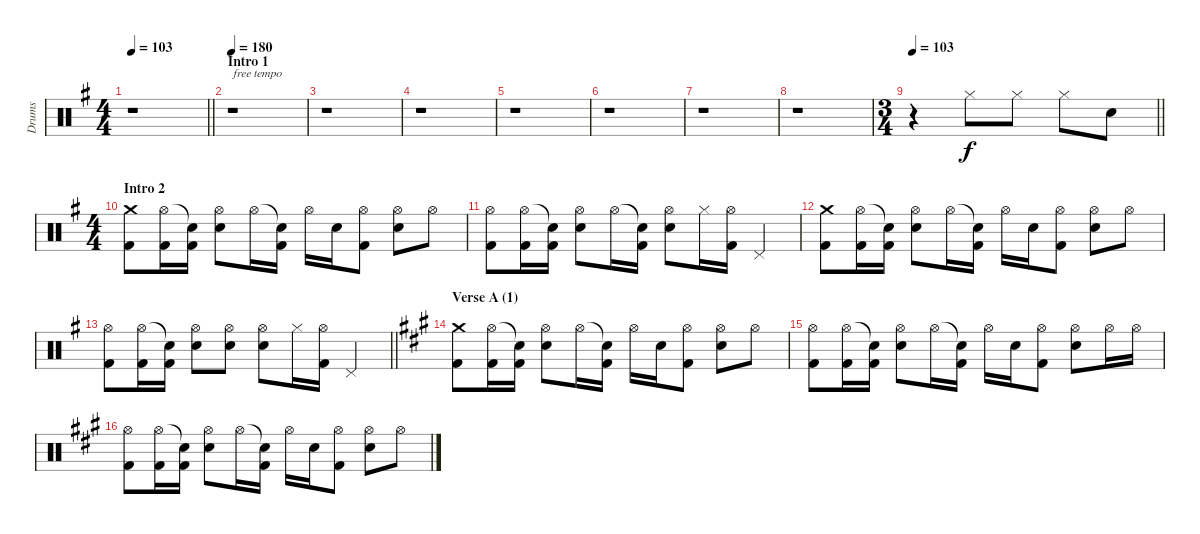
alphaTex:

\track ("Drums" "Drums") {instrument percussion}
\staff {score}
\articulation defaults
\ts (4 4)
\tempo 103
\clef neutral
\barLineRight lightlight
\ks eminor
r.1{dy f} |
\section ("" "Intro 1")
\tempo 180
r.1{txt "free tempo"} |
r.1 |
r.1 |
r.1 |
r.1 |
r.1 |
r.1 |
\ts (3 4)
\tempo 103
\barLineRight lightlight
r.4 "Hi-Hat (closed)".8 "Hi-Hat (closed)".8 "Hi-Hat (closed)".8 "Electric Snare (hit)".8 |
\ts (4 4)
\section ("" "Intro 2")
("Crash medium (hit)" "Kick (hit) 2").8 ("Hi-Hat (open)" "Kick (hit) 2").16 ("Snare (hit)"{t} "Kick (hit) 2").16 ("Hi-Hat (open)" "Electric Snare (hit)").8 "Hi-Hat (open)".16 ("Snare (hit)"{t} "Kick (hit) 2").16 "Hi-Hat (open)".16 "Electric Snare (hit)".16 ("Hi-Hat (open)" "Kick (hit) 2").8 ("Hi-Hat (open)" "Electric Snare (hit)").8 "Hi-Hat (open)".8 |
("Hi-Hat (open)" "Kick (hit) 2").8 ("Hi-Hat (open)" "Kick (hit) 2").16 ("Snare (hit)"{t} "Kick (hit) 2").16 ("Hi-Hat (open)" "Electric Snare (hit)").8 "Hi-Hat (open)".16 ("Snare (hit)"{t} "Kick (hit) 2").16 ("Hi-Hat (open)" "Electric Snare (hit)").8 "Hi-Hat (closed)".16 ("Hi-Hat (open)" "Kick (hit) 2").16 "Pedal Hi-Hat (hit)".4 |
("Crash medium (hit)" "Kick (hit) 2").8 ("Hi-Hat (open)" "Kick (hit) 2").16 ("Snare (hit)"{t} "Kick (hit) 2").16 ("Hi-Hat (open)" "Electric Snare (hit)").8 "Hi-Hat (open)".16 ("Snare (hit)"{t} "Kick (hit) 2").16 "Hi-Hat (open)".16 "Electric Snare (hit)".16 ("Hi-Hat (open)" "Kick (hit) 2").8 ("Hi-Hat (open)" "Electric Snare (hit)").8 "Hi-Hat (open)".8 |
\barLineRight lightlight
("Hi-Hat (open)" "Kick (hit) 2").8 ("Hi-Hat (open)" "Kick (hit) 2").16 ("Snare (hit)"{t} "Kick (hit) 2").16 ("Hi-Hat (open)" "Electric Snare (hit)").8 ("Hi-Hat (open)" "Electric Snare (hit)").8 ("Hi-Hat (open)" "Electric Snare (hit)").8 "Hi-Hat (closed)".16 ("Hi-Hat (open)" "Kick (hit) 2").16 "Pedal Hi-Hat (hit)".4 |
\section ("" "Verse A (1)")
\ks f#minor
("Crash medium (hit)" "Kick (hit) 2").8 ("Hi-Hat (open)" "Kick (hit) 2").16 ("Snare (hit)"{t} "Kick (hit) 2").16 ("Hi-Hat (open)" "Electric Snare (hit)").8 "Hi-Hat (open)".16 ("Snare (hit)"{t} "Kick (hit) 2").16 "Hi-Hat (open)".16 "Electric Snare (hit)".16 ("Hi-Hat (open)" "Kick (hit) 2").8 ("Hi-Hat (open)" "Electric Snare (hit)").8 "Hi-Hat (open)".8 |
("Hi-Hat (open)" "Kick (hit) 2").8 ("Hi-Hat (open)" "Kick (hit) 2").16 ("Snare (hit)"{t} "Kick (hit) 2").16 ("Hi-Hat (open)" "Electric Snare (hit)").8 "Hi-Hat (open)".16 ("Snare (hit)"{t} "Kick (hit) 2").16 "Hi-Hat (open)".16 "Electric Snare (hit)".16 ("Hi-Hat (open)" "Kick (hit) 2").8 ("Hi-Hat (open)" "Electric Snare (hit)").8 "Hi-Hat (open)".16 "Hi-Hat (open)".16 |
("Hi-Hat (open)" "Kick (hit) 2").8 ("Hi-Hat (open)" "Kick (hit) 2").16 ("Snare (hit)"{t} "Kick (hit) 2").16 ("Hi-Hat (open)" "Electric Snare (hit)").8 "Hi-Hat (open)".16 ("Snare (hit)"{t} "Kick (hit) 2").16 "Hi-Hat (open)".16 "Electric Snare (hit)".16 ("Hi-Hat (open)" "Kick (hit) 2").8 ("Hi-Hat (open)" "Electric Snare (hit)").8 "Hi-Hat (open)".8
